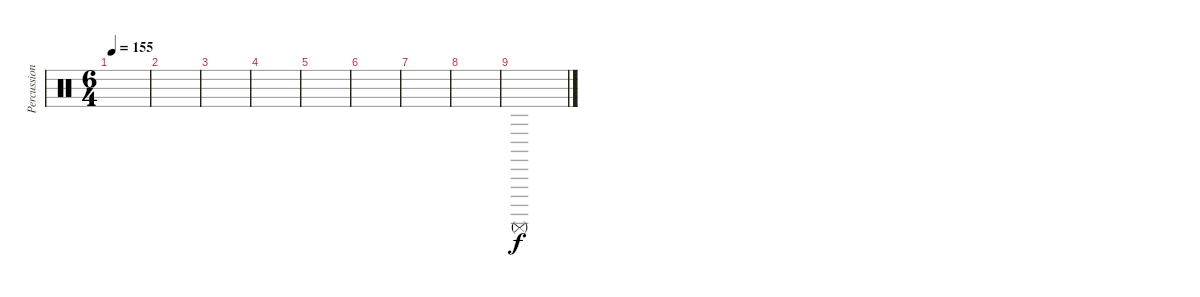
\track ("Percussion" "Percussion") {instrument percussion}
\staff {score}
\articulation defaults
\ts (6 4)
\tempo 155
\clef neutral
\ks c
|
|
|
|
|
|
|
|
"Surdo (mute)".1
